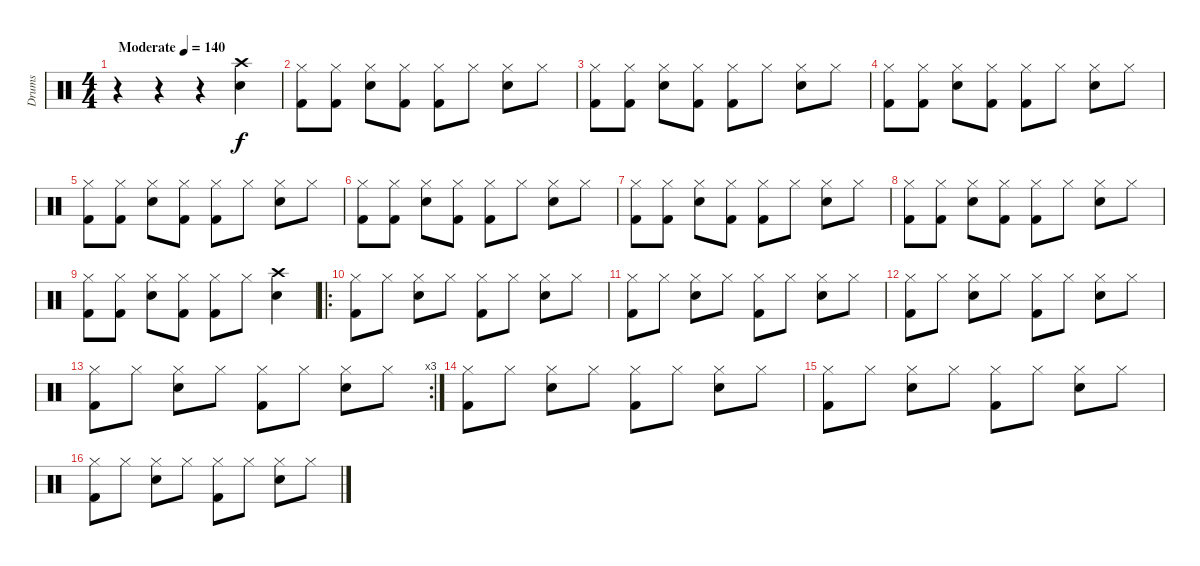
\track ("Drums" "Drums") {instrument percussion}
\staff {score}
\articulation defaults
\ts (4 4)
\tempo (140 "Moderate")
\clef neutral
\ks c
r.4{dy f} r.4 r.4 ("Crash high (hit)" "Electric Snare (hit)").4 |
("Hi-Hat (closed)" "Kick (hit) 2").8 ("Hi-Hat (closed)" "Kick (hit) 2").8 ("Hi-Hat (closed)" "Electric Snare (hit)").8 ("Hi-Hat (closed)" "Kick (hit) 2").8 ("Hi-Hat (closed)" "Kick (hit) 2").8 "Hi-Hat (closed)".8 ("Hi-Hat (closed)" "Electric Snare (hit)").8 "Hi-Hat (closed)".8 |
("Hi-Hat (closed)" "Kick (hit) 2").8 ("Hi-Hat (closed)" "Kick (hit) 2").8 ("Hi-Hat (closed)" "Electric Snare (hit)").8 ("Hi-Hat (closed)" "Kick (hit) 2").8 ("Hi-Hat (closed)" "Kick (hit) 2").8 "Hi-Hat (closed)".8 ("Hi-Hat (closed)" "Electric Snare (hit)").8 "Hi-Hat (closed)".8 |
("Hi-Hat (closed)" "Kick (hit) 2").8 ("Hi-Hat (closed)" "Kick (hit) 2").8 ("Hi-Hat (closed)" "Electric Snare (hit)").8 ("Hi-Hat (closed)" "Kick (hit) 2").8 ("Hi-Hat (closed)" "Kick (hit) 2").8 "Hi-Hat (closed)".8 ("Hi-Hat (closed)" "Electric Snare (hit)").8 "Hi-Hat (closed)".8 |
("Hi-Hat (closed)" "Kick (hit) 2").8 ("Hi-Hat (closed)" "Kick (hit) 2").8 ("Hi-Hat (closed)" "Electric Snare (hit)").8 ("Hi-Hat (closed)" "Kick (hit) 2").8 ("Hi-Hat (closed)" "Kick (hit) 2").8 "Hi-Hat (closed)".8 ("Hi-Hat (closed)" "Electric Snare (hit)").8 "Hi-Hat (closed)".8 |
("Hi-Hat (closed)" "Kick (hit) 2").8 ("Hi-Hat (closed)" "Kick (hit) 2").8 ("Hi-Hat (closed)" "Electric Snare (hit)").8 ("Hi-Hat (closed)" "Kick (hit) 2").8 ("Hi-Hat (closed)" "Kick (hit) 2").8 "Hi-Hat (closed)".8 ("Hi-Hat (closed)" "Electric Snare (hit)").8 "Hi-Hat (closed)".8 |
("Hi-Hat (closed)" "Kick (hit) 2").8 ("Hi-Hat (closed)" "Kick (hit) 2").8 ("Hi-Hat (closed)" "Electric Snare (hit)").8 ("Hi-Hat (closed)" "Kick (hit) 2").8 ("Hi-Hat (closed)" "Kick (hit) 2").8 "Hi-Hat (closed)".8 ("Hi-Hat (closed)" "Electric Snare (hit)").8 "Hi-Hat (closed)".8 |
("Hi-Hat (closed)" "Kick (hit) 2").8 ("Hi-Hat (closed)" "Kick (hit) 2").8 ("Hi-Hat (closed)" "Electric Snare (hit)").8 ("Hi-Hat (closed)" "Kick (hit) 2").8 ("Hi-Hat (closed)" "Kick (hit) 2").8 "Hi-Hat (closed)".8 ("Hi-Hat (closed)" "Electric Snare (hit)").8 "Hi-Hat (closed)".8 |
("Hi-Hat (closed)" "Kick (hit) 2").8 ("Hi-Hat (closed)" "Kick (hit) 2").8 ("Hi-Hat (closed)" "Electric Snare (hit)").8 ("Hi-Hat (closed)" "Kick (hit) 2").8 ("Hi-Hat (closed)" "Kick (hit) 2").8 "Hi-Hat (closed)".8 ("Crash high (hit)" "Electric Snare (hit)").4 |
\ro
("Hi-Hat (closed)" "Kick (hit) 2").8 "Hi-Hat (closed)".8 ("Hi-Hat (closed)" "Electric Snare (hit)").8 "Hi-Hat (closed)".8 ("Hi-Hat (closed)" "Kick (hit) 2").8 "Hi-Hat (closed)".8 ("Hi-Hat (closed)" "Electric Snare (hit)").8 "Hi-Hat (closed)".8 |
("Hi-Hat (closed)" "Kick (hit) 2").8 "Hi-Hat (closed)".8 ("Hi-Hat (closed)" "Electric Snare (hit)").8 "Hi-Hat (closed)".8 ("Hi-Hat (closed)" "Kick (hit) 2").8 "Hi-Hat (closed)".8 ("Hi-Hat (closed)" "Electric Snare (hit)").8 "Hi-Hat (closed)".8 |
("Hi-Hat (closed)" "Kick (hit) 2").8 "Hi-Hat (closed)".8 ("Hi-Hat (closed)" "Electric Snare (hit)").8 "Hi-Hat (closed)".8 ("Hi-Hat (closed)" "Kick (hit) 2").8 "Hi-Hat (closed)".8 ("Hi-Hat (closed)" "Electric Snare (hit)").8 "Hi-Hat (closed)".8 |
\rc 3
("Hi-Hat (closed)" "Kick (hit) 2").8 "Hi-Hat (closed)".8 ("Hi-Hat (closed)" "Electric Snare (hit)").8 "Hi-Hat (closed)".8 ("Hi-Hat (closed)" "Kick (hit) 2").8 "Hi-Hat (closed)".8 ("Hi-Hat (closed)" "Electric Snare (hit)").8 "Hi-Hat (closed)".8 |
("Hi-Hat (closed)" "Kick (hit) 2").8 "Hi-Hat (closed)".8 ("Hi-Hat (closed)" "Electric Snare (hit)").8 "Hi-Hat (closed)".8 ("Hi-Hat (closed)" "Kick (hit) 2").8 "Hi-Hat (closed)".8 ("Hi-Hat (closed)" "Electric Snare (hit)").8 "Hi-Hat (closed)".8 |
("Hi-Hat (closed)" "Kick (hit) 2").8 "Hi-Hat (closed)".8 ("Hi-Hat (closed)" "Electric Snare (hit)").8 "Hi-Hat (closed)".8 ("Hi-Hat (closed)" "Kick (hit) 2").8 "Hi-Hat (closed)".8 ("Hi-Hat (closed)" "Electric Snare (hit)").8 "Hi-Hat (closed)".8 |
("Hi-Hat (closed)" "Kick (hit) 2").8 "Hi-Hat (closed)".8 ("Hi-Hat (closed)" "Electric Snare (hit)").8 "Hi-Hat (closed)".8 ("Hi-Hat (closed)" "Kick (hit) 2").8 "Hi-Hat (closed)".8 ("Hi-Hat (closed)" "Electric Snare (hit)").8 "Hi-Hat (closed)".8
